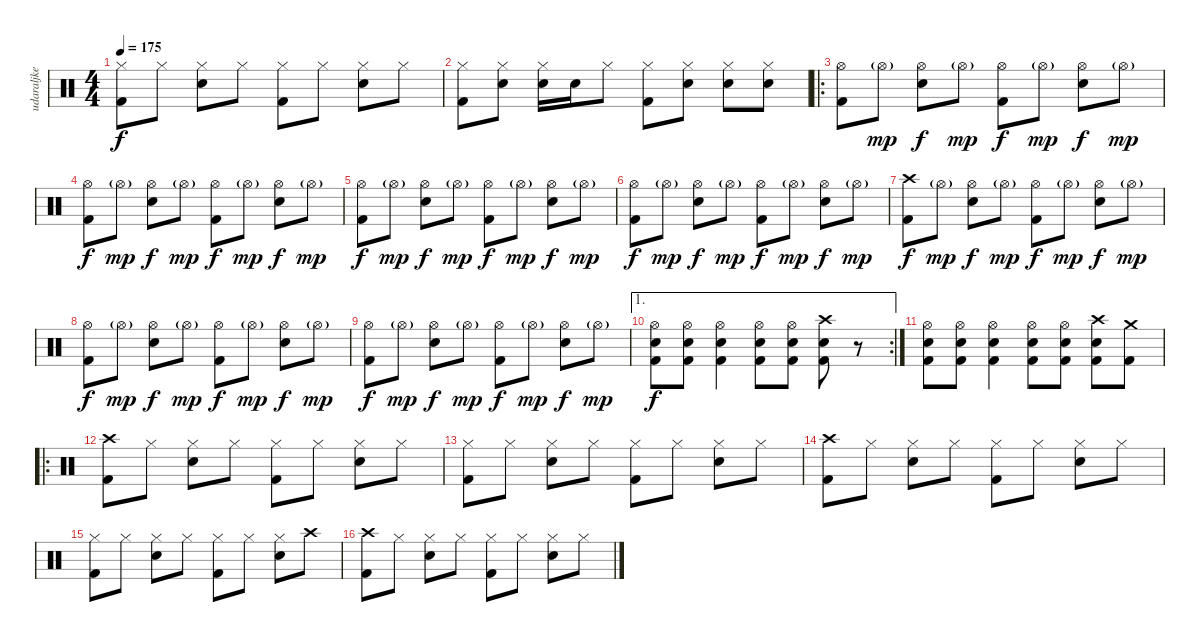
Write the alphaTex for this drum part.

\track ("udaraljke" "udaraljke") {instrument percussion}
\staff {score}
\articulation defaults
\ts (4 4)
\tempo 175
\clef neutral
\ks c
("Hi-Hat (closed)" "Kick (hit) 2").8{dy f} "Hi-Hat (closed)".8 ("Hi-Hat (closed)" "Snare (hit) 2").8 "Hi-Hat (closed)".8 ("Hi-Hat (closed)" "Kick (hit) 2").8 "Hi-Hat (closed)".8 ("Hi-Hat (closed)" "Snare (hit) 2").8 "Hi-Hat (closed)".8 |
("Hi-Hat (closed)" "Kick (hit) 2").8 ("Hi-Hat (closed)" "Snare (hit) 2").8 ("Hi-Hat (closed)" "Snare (hit) 2").16 "Snare (hit) 2".16 "Hi-Hat (closed)".8 ("Hi-Hat (closed)" "Kick (hit) 2").8 ("Hi-Hat (closed)" "Snare (hit) 2").8 ("Hi-Hat (closed)" "Snare (hit) 2").8 ("Hi-Hat (closed)" "Snare (hit) 2").8 |
\ro
("Hi-Hat (open)" "Kick (hit) 2").8 "Hi-Hat (open)"{g}.8{dy mp} ("Hi-Hat (open)" "Snare (hit) 2").8{dy f} "Hi-Hat (open)"{g}.8{dy mp} ("Hi-Hat (open)" "Kick (hit) 2").8{dy f} "Hi-Hat (open)"{g}.8{dy mp} ("Hi-Hat (open)" "Snare (hit) 2").8{dy f} "Hi-Hat (open)"{g}.8{dy mp} |
("Hi-Hat (open)" "Kick (hit) 2").8{dy f} "Hi-Hat (open)"{g}.8{dy mp} ("Hi-Hat (open)" "Snare (hit) 2").8{dy f} "Hi-Hat (open)"{g}.8{dy mp} ("Hi-Hat (open)" "Kick (hit) 2").8{dy f} "Hi-Hat (open)"{g}.8{dy mp} ("Hi-Hat (open)" "Snare (hit) 2").8{dy f} "Hi-Hat (open)"{g}.8{dy mp} |
("Hi-Hat (open)" "Kick (hit) 2").8{dy f} "Hi-Hat (open)"{g}.8{dy mp} ("Hi-Hat (open)" "Snare (hit) 2").8{dy f} "Hi-Hat (open)"{g}.8{dy mp} ("Hi-Hat (open)" "Kick (hit) 2").8{dy f} "Hi-Hat (open)"{g}.8{dy mp} ("Hi-Hat (open)" "Snare (hit) 2").8{dy f} "Hi-Hat (open)"{g}.8{dy mp} |
("Hi-Hat (open)" "Kick (hit) 2").8{dy f} "Hi-Hat (open)"{g}.8{dy mp} ("Hi-Hat (open)" "Snare (hit) 2").8{dy f} "Hi-Hat (open)"{g}.8{dy mp} ("Hi-Hat (open)" "Kick (hit) 2").8{dy f} "Hi-Hat (open)"{g}.8{dy mp} ("Hi-Hat (open)" "Snare (hit) 2").8{dy f} "Hi-Hat (open)"{g}.8{dy mp} |
("Crash high (hit)" "Kick (hit) 2").8{dy f} "Hi-Hat (open)"{g}.8{dy mp} ("Hi-Hat (open)" "Snare (hit) 2").8{dy f} "Hi-Hat (open)"{g}.8{dy mp} ("Hi-Hat (open)" "Kick (hit) 2").8{dy f} "Hi-Hat (open)"{g}.8{dy mp} ("Hi-Hat (open)" "Snare (hit) 2").8{dy f} "Hi-Hat (open)"{g}.8{dy mp} |
("Hi-Hat (open)" "Kick (hit) 2").8{dy f} "Hi-Hat (open)"{g}.8{dy mp} ("Hi-Hat (open)" "Snare (hit) 2").8{dy f} "Hi-Hat (open)"{g}.8{dy mp} ("Hi-Hat (open)" "Kick (hit) 2").8{dy f} "Hi-Hat (open)"{g}.8{dy mp} ("Hi-Hat (open)" "Snare (hit) 2").8{dy f} "Hi-Hat (open)"{g}.8{dy mp} |
("Hi-Hat (open)" "Kick (hit) 2").8{dy f} "Hi-Hat (open)"{g}.8{dy mp} ("Hi-Hat (open)" "Snare (hit) 2").8{dy f} "Hi-Hat (open)"{g}.8{dy mp} ("Hi-Hat (open)" "Kick (hit) 2").8{dy f} "Hi-Hat (open)"{g}.8{dy mp} ("Hi-Hat (open)" "Snare (hit) 2").8{dy f} "Hi-Hat (open)"{g}.8{dy mp} |
\ae 1
\rc 2
("Hi-Hat (open)" "Snare (hit) 2" "Kick (hit) 2").8{dy f} ("Hi-Hat (open)" "Snare (hit) 2" "Kick (hit) 2").8 ("Hi-Hat (open)" "Snare (hit) 2" "Kick (hit) 2").4 ("Hi-Hat (open)" "Snare (hit) 2" "Kick (hit) 2").8 ("Hi-Hat (open)" "Snare (hit) 2" "Kick (hit) 2").8 ("Crash high (hit)" "Snare (hit) 2" "Kick (hit) 2").8 r.8 |
("Hi-Hat (open)" "Snare (hit) 2" "Kick (hit) 2").8 ("Hi-Hat (open)" "Snare (hit) 2" "Kick (hit) 2").8 ("Hi-Hat (open)" "Snare (hit) 2" "Kick (hit) 2").4 ("Hi-Hat (open)" "Snare (hit) 2" "Kick (hit) 2").8 ("Hi-Hat (open)" "Snare (hit) 2" "Kick (hit) 2").8 ("Crash high (hit)" "Snare (hit) 2" "Kick (hit) 2").8 ("Crash medium (hit)" "Kick (hit) 2").8 |
\ro
("Crash high (hit)" "Kick (hit) 2").8 "Hi-Hat (closed)".8 ("Hi-Hat (closed)" "Snare (hit) 2").8 "Hi-Hat (closed)".8 ("Hi-Hat (closed)" "Kick (hit) 2").8 "Hi-Hat (closed)".8 ("Hi-Hat (closed)" "Snare (hit) 2").8 "Hi-Hat (closed)".8 |
("Hi-Hat (closed)" "Kick (hit) 2").8 "Hi-Hat (closed)".8 ("Hi-Hat (closed)" "Snare (hit) 2").8 "Hi-Hat (closed)".8 ("Hi-Hat (closed)" "Kick (hit) 2").8 "Hi-Hat (closed)".8 ("Hi-Hat (closed)" "Snare (hit) 2").8 "Hi-Hat (closed)".8 |
("Crash high (hit)" "Kick (hit) 2").8 "Hi-Hat (closed)".8 ("Hi-Hat (closed)" "Snare (hit) 2").8 "Hi-Hat (closed)".8 ("Hi-Hat (closed)" "Kick (hit) 2").8 "Hi-Hat (closed)".8 ("Hi-Hat (closed)" "Snare (hit) 2").8 "Hi-Hat (closed)".8 |
("Hi-Hat (closed)" "Kick (hit) 2").8 "Hi-Hat (closed)".8 ("Hi-Hat (closed)" "Snare (hit) 2").8 "Hi-Hat (closed)".8 ("Hi-Hat (closed)" "Kick (hit) 2").8 "Hi-Hat (closed)".8 ("Hi-Hat (closed)" "Snare (hit) 2").8 "Crash high (hit)".8 |
("Crash high (hit)" "Kick (hit) 2").8 "Hi-Hat (closed)".8 ("Hi-Hat (closed)" "Snare (hit) 2").8 "Hi-Hat (closed)".8 ("Hi-Hat (closed)" "Kick (hit) 2").8 "Hi-Hat (closed)".8 ("Hi-Hat (closed)" "Snare (hit) 2").8 "Hi-Hat (closed)".8
